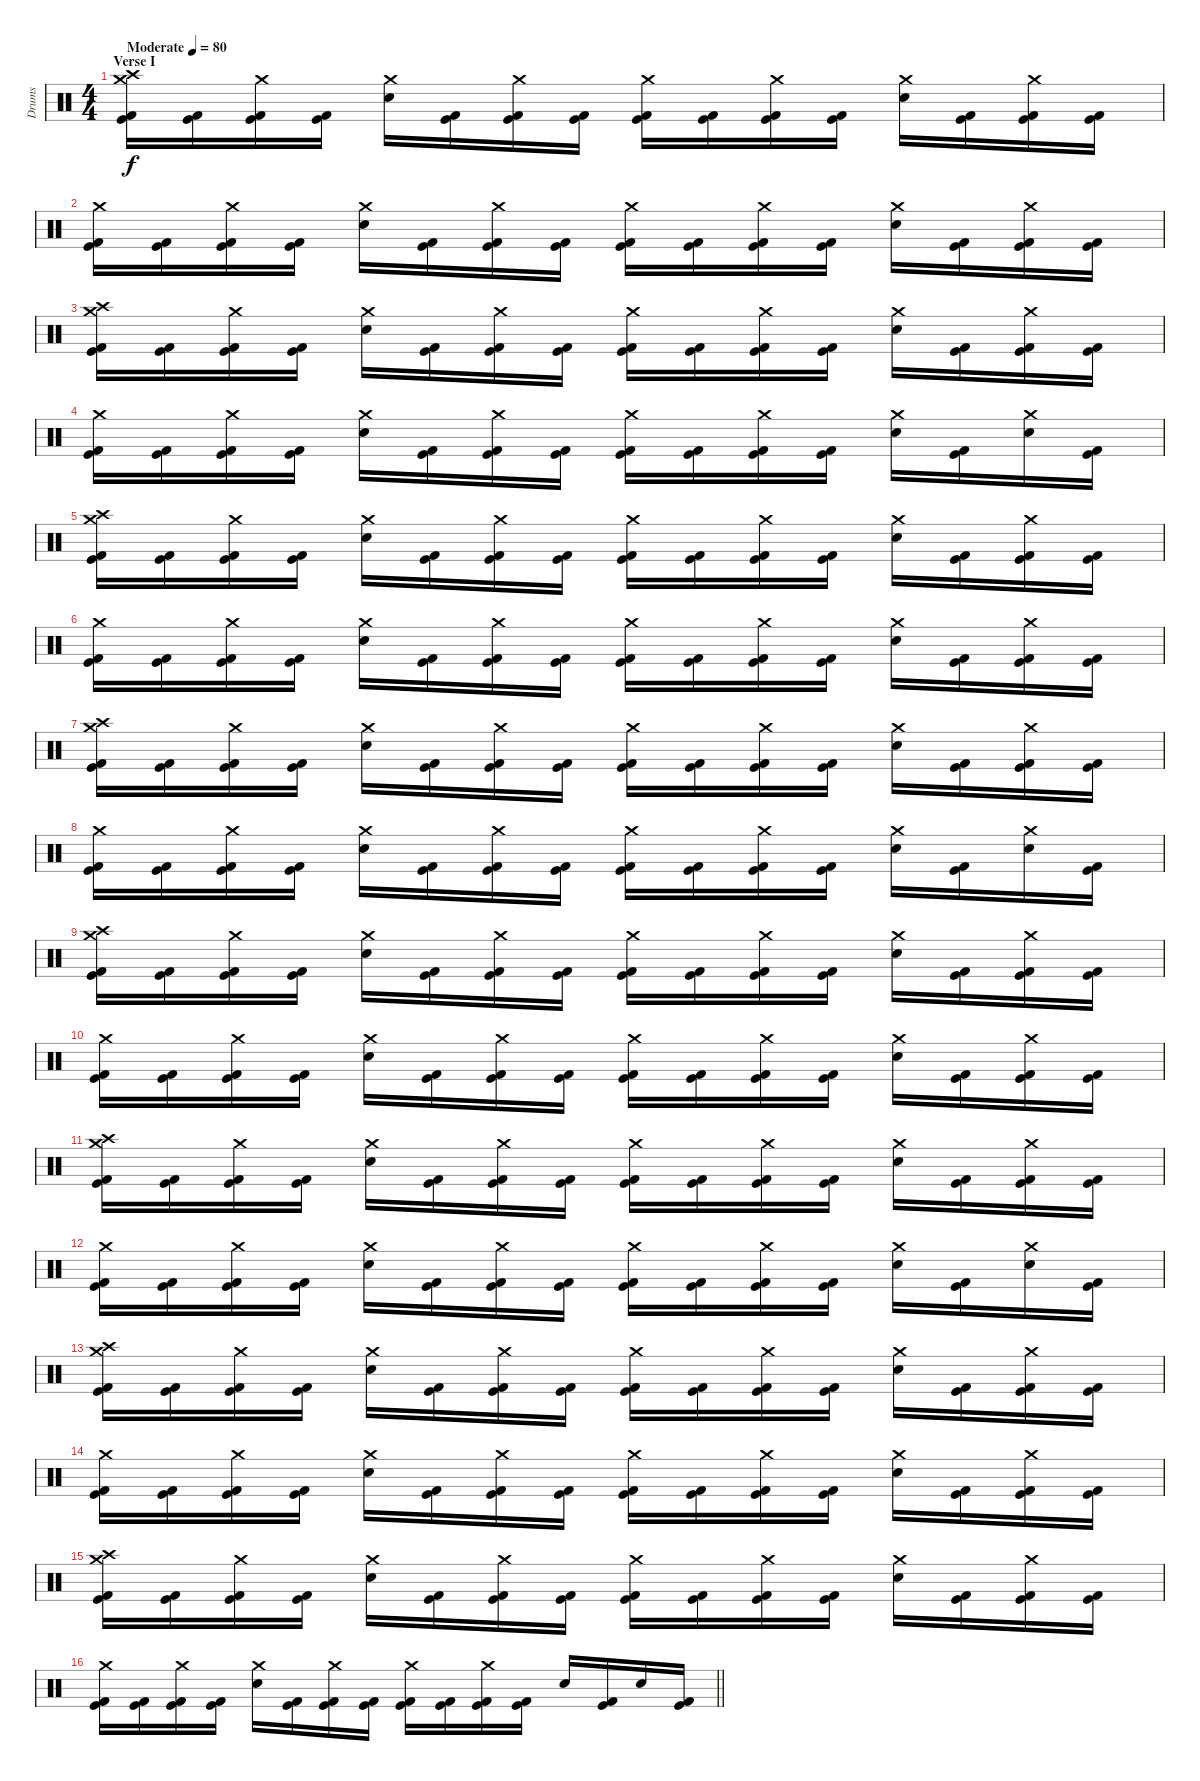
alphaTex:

\track ("Drums" "Drums") {instrument percussion}
\staff {score}
\articulation defaults
\ts (4 4)
\section ("" "Verse I")
\tempo (80 "Moderate")
\clef neutral
\ks c
("Crash medium (hit)" "Crash high (hit)" "Kick (hit) 2" "Kick (hit)").16{dy f} ("Kick (hit) 2" "Kick (hit)").16 ("Crash medium (hit)" "Kick (hit) 2" "Kick (hit)").16 ("Kick (hit) 2" "Kick (hit)").16 ("Crash medium (hit)" "Electric Snare (hit)").16 ("Kick (hit) 2" "Kick (hit)").16 ("Crash medium (hit)" "Kick (hit) 2" "Kick (hit)").16 ("Kick (hit) 2" "Kick (hit)").16 ("Crash medium (hit)" "Kick (hit) 2" "Kick (hit)").16 ("Kick (hit) 2" "Kick (hit)").16 ("Crash medium (hit)" "Kick (hit) 2" "Kick (hit)").16 ("Kick (hit) 2" "Kick (hit)").16 ("Crash medium (hit)" "Electric Snare (hit)").16 ("Kick (hit) 2" "Kick (hit)").16 ("Crash medium (hit)" "Kick (hit) 2" "Kick (hit)").16 ("Kick (hit) 2" "Kick (hit)").16 |
("Crash medium (hit)" "Kick (hit) 2" "Kick (hit)").16 ("Kick (hit) 2" "Kick (hit)").16 ("Crash medium (hit)" "Kick (hit) 2" "Kick (hit)").16 ("Kick (hit) 2" "Kick (hit)").16 ("Crash medium (hit)" "Electric Snare (hit)").16 ("Kick (hit) 2" "Kick (hit)").16 ("Crash medium (hit)" "Kick (hit) 2" "Kick (hit)").16 ("Kick (hit) 2" "Kick (hit)").16 ("Crash medium (hit)" "Kick (hit) 2" "Kick (hit)").16 ("Kick (hit) 2" "Kick (hit)").16 ("Crash medium (hit)" "Kick (hit) 2" "Kick (hit)").16 ("Kick (hit) 2" "Kick (hit)").16 ("Crash medium (hit)" "Electric Snare (hit)").16 ("Kick (hit) 2" "Kick (hit)").16 ("Crash medium (hit)" "Kick (hit) 2" "Kick (hit)").16 ("Kick (hit) 2" "Kick (hit)").16 |
("Crash medium (hit)" "Crash high (hit)" "Kick (hit) 2" "Kick (hit)").16 ("Kick (hit) 2" "Kick (hit)").16 ("Crash medium (hit)" "Kick (hit) 2" "Kick (hit)").16 ("Kick (hit) 2" "Kick (hit)").16 ("Crash medium (hit)" "Electric Snare (hit)").16 ("Kick (hit) 2" "Kick (hit)").16 ("Crash medium (hit)" "Kick (hit) 2" "Kick (hit)").16 ("Kick (hit) 2" "Kick (hit)").16 ("Crash medium (hit)" "Kick (hit) 2" "Kick (hit)").16 ("Kick (hit) 2" "Kick (hit)").16 ("Crash medium (hit)" "Kick (hit) 2" "Kick (hit)").16 ("Kick (hit) 2" "Kick (hit)").16 ("Crash medium (hit)" "Electric Snare (hit)").16 ("Kick (hit) 2" "Kick (hit)").16 ("Crash medium (hit)" "Kick (hit) 2" "Kick (hit)").16 ("Kick (hit) 2" "Kick (hit)").16 |
("Crash medium (hit)" "Kick (hit) 2" "Kick (hit)").16 ("Kick (hit) 2" "Kick (hit)").16 ("Crash medium (hit)" "Kick (hit) 2" "Kick (hit)").16 ("Kick (hit) 2" "Kick (hit)").16 ("Crash medium (hit)" "Electric Snare (hit)").16 ("Kick (hit) 2" "Kick (hit)").16 ("Crash medium (hit)" "Kick (hit) 2" "Kick (hit)").16 ("Kick (hit) 2" "Kick (hit)").16 ("Crash medium (hit)" "Kick (hit) 2" "Kick (hit)").16 ("Kick (hit) 2" "Kick (hit)").16 ("Crash medium (hit)" "Kick (hit) 2" "Kick (hit)").16 ("Kick (hit) 2" "Kick (hit)").16 ("Crash medium (hit)" "Electric Snare (hit)").16 ("Kick (hit) 2" "Kick (hit)").16 ("Crash medium (hit)" "Electric Snare (hit)").16 ("Kick (hit) 2" "Kick (hit)").16 |
("Crash medium (hit)" "Crash high (hit)" "Kick (hit) 2" "Kick (hit)").16 ("Kick (hit) 2" "Kick (hit)").16 ("Crash medium (hit)" "Kick (hit) 2" "Kick (hit)").16 ("Kick (hit) 2" "Kick (hit)").16 ("Crash medium (hit)" "Electric Snare (hit)").16 ("Kick (hit) 2" "Kick (hit)").16 ("Crash medium (hit)" "Kick (hit) 2" "Kick (hit)").16 ("Kick (hit) 2" "Kick (hit)").16 ("Crash medium (hit)" "Kick (hit) 2" "Kick (hit)").16 ("Kick (hit) 2" "Kick (hit)").16 ("Crash medium (hit)" "Kick (hit) 2" "Kick (hit)").16 ("Kick (hit) 2" "Kick (hit)").16 ("Crash medium (hit)" "Electric Snare (hit)").16 ("Kick (hit) 2" "Kick (hit)").16 ("Crash medium (hit)" "Kick (hit) 2" "Kick (hit)").16 ("Kick (hit) 2" "Kick (hit)").16 |
("Crash medium (hit)" "Kick (hit) 2" "Kick (hit)").16 ("Kick (hit) 2" "Kick (hit)").16 ("Crash medium (hit)" "Kick (hit) 2" "Kick (hit)").16 ("Kick (hit) 2" "Kick (hit)").16 ("Crash medium (hit)" "Electric Snare (hit)").16 ("Kick (hit) 2" "Kick (hit)").16 ("Crash medium (hit)" "Kick (hit) 2" "Kick (hit)").16 ("Kick (hit) 2" "Kick (hit)").16 ("Crash medium (hit)" "Kick (hit) 2" "Kick (hit)").16 ("Kick (hit) 2" "Kick (hit)").16 ("Crash medium (hit)" "Kick (hit) 2" "Kick (hit)").16 ("Kick (hit) 2" "Kick (hit)").16 ("Crash medium (hit)" "Electric Snare (hit)").16 ("Kick (hit) 2" "Kick (hit)").16 ("Crash medium (hit)" "Kick (hit) 2" "Kick (hit)").16 ("Kick (hit) 2" "Kick (hit)").16 |
("Crash medium (hit)" "Crash high (hit)" "Kick (hit) 2" "Kick (hit)").16 ("Kick (hit) 2" "Kick (hit)").16 ("Crash medium (hit)" "Kick (hit) 2" "Kick (hit)").16 ("Kick (hit) 2" "Kick (hit)").16 ("Crash medium (hit)" "Electric Snare (hit)").16 ("Kick (hit) 2" "Kick (hit)").16 ("Crash medium (hit)" "Kick (hit) 2" "Kick (hit)").16 ("Kick (hit) 2" "Kick (hit)").16 ("Crash medium (hit)" "Kick (hit) 2" "Kick (hit)").16 ("Kick (hit) 2" "Kick (hit)").16 ("Crash medium (hit)" "Kick (hit) 2" "Kick (hit)").16 ("Kick (hit) 2" "Kick (hit)").16 ("Crash medium (hit)" "Electric Snare (hit)").16 ("Kick (hit) 2" "Kick (hit)").16 ("Crash medium (hit)" "Kick (hit) 2" "Kick (hit)").16 ("Kick (hit) 2" "Kick (hit)").16 |
("Crash medium (hit)" "Kick (hit) 2" "Kick (hit)").16 ("Kick (hit) 2" "Kick (hit)").16 ("Crash medium (hit)" "Kick (hit) 2" "Kick (hit)").16 ("Kick (hit) 2" "Kick (hit)").16 ("Crash medium (hit)" "Electric Snare (hit)").16 ("Kick (hit) 2" "Kick (hit)").16 ("Crash medium (hit)" "Kick (hit) 2" "Kick (hit)").16 ("Kick (hit) 2" "Kick (hit)").16 ("Crash medium (hit)" "Kick (hit) 2" "Kick (hit)").16 ("Kick (hit) 2" "Kick (hit)").16 ("Crash medium (hit)" "Kick (hit) 2" "Kick (hit)").16 ("Kick (hit) 2" "Kick (hit)").16 ("Crash medium (hit)" "Electric Snare (hit)").16 ("Kick (hit) 2" "Kick (hit)").16 ("Crash medium (hit)" "Electric Snare (hit)").16 ("Kick (hit) 2" "Kick (hit)").16 |
("Crash medium (hit)" "Crash high (hit)" "Kick (hit) 2" "Kick (hit)").16 ("Kick (hit) 2" "Kick (hit)").16 ("Crash medium (hit)" "Kick (hit) 2" "Kick (hit)").16 ("Kick (hit) 2" "Kick (hit)").16 ("Crash medium (hit)" "Electric Snare (hit)").16 ("Kick (hit) 2" "Kick (hit)").16 ("Crash medium (hit)" "Kick (hit) 2" "Kick (hit)").16 ("Kick (hit) 2" "Kick (hit)").16 ("Crash medium (hit)" "Kick (hit) 2" "Kick (hit)").16 ("Kick (hit) 2" "Kick (hit)").16 ("Crash medium (hit)" "Kick (hit) 2" "Kick (hit)").16 ("Kick (hit) 2" "Kick (hit)").16 ("Crash medium (hit)" "Electric Snare (hit)").16 ("Kick (hit) 2" "Kick (hit)").16 ("Crash medium (hit)" "Kick (hit) 2" "Kick (hit)").16 ("Kick (hit) 2" "Kick (hit)").16 |
("Crash medium (hit)" "Kick (hit) 2" "Kick (hit)").16 ("Kick (hit) 2" "Kick (hit)").16 ("Crash medium (hit)" "Kick (hit) 2" "Kick (hit)").16 ("Kick (hit) 2" "Kick (hit)").16 ("Crash medium (hit)" "Electric Snare (hit)").16 ("Kick (hit) 2" "Kick (hit)").16 ("Crash medium (hit)" "Kick (hit) 2" "Kick (hit)").16 ("Kick (hit) 2" "Kick (hit)").16 ("Crash medium (hit)" "Kick (hit) 2" "Kick (hit)").16 ("Kick (hit) 2" "Kick (hit)").16 ("Crash medium (hit)" "Kick (hit) 2" "Kick (hit)").16 ("Kick (hit) 2" "Kick (hit)").16 ("Crash medium (hit)" "Electric Snare (hit)").16 ("Kick (hit) 2" "Kick (hit)").16 ("Crash medium (hit)" "Kick (hit) 2" "Kick (hit)").16 ("Kick (hit) 2" "Kick (hit)").16 |
("Crash medium (hit)" "Crash high (hit)" "Kick (hit) 2" "Kick (hit)").16 ("Kick (hit) 2" "Kick (hit)").16 ("Crash medium (hit)" "Kick (hit) 2" "Kick (hit)").16 ("Kick (hit) 2" "Kick (hit)").16 ("Crash medium (hit)" "Electric Snare (hit)").16 ("Kick (hit) 2" "Kick (hit)").16 ("Crash medium (hit)" "Kick (hit) 2" "Kick (hit)").16 ("Kick (hit) 2" "Kick (hit)").16 ("Crash medium (hit)" "Kick (hit) 2" "Kick (hit)").16 ("Kick (hit) 2" "Kick (hit)").16 ("Crash medium (hit)" "Kick (hit) 2" "Kick (hit)").16 ("Kick (hit) 2" "Kick (hit)").16 ("Crash medium (hit)" "Electric Snare (hit)").16 ("Kick (hit) 2" "Kick (hit)").16 ("Crash medium (hit)" "Kick (hit) 2" "Kick (hit)").16 ("Kick (hit) 2" "Kick (hit)").16 |
("Crash medium (hit)" "Kick (hit) 2" "Kick (hit)").16 ("Kick (hit) 2" "Kick (hit)").16 ("Crash medium (hit)" "Kick (hit) 2" "Kick (hit)").16 ("Kick (hit) 2" "Kick (hit)").16 ("Crash medium (hit)" "Electric Snare (hit)").16 ("Kick (hit) 2" "Kick (hit)").16 ("Crash medium (hit)" "Kick (hit) 2" "Kick (hit)").16 ("Kick (hit) 2" "Kick (hit)").16 ("Crash medium (hit)" "Kick (hit) 2" "Kick (hit)").16 ("Kick (hit) 2" "Kick (hit)").16 ("Crash medium (hit)" "Kick (hit) 2" "Kick (hit)").16 ("Kick (hit) 2" "Kick (hit)").16 ("Crash medium (hit)" "Electric Snare (hit)").16 ("Kick (hit) 2" "Kick (hit)").16 ("Crash medium (hit)" "Electric Snare (hit)").16 ("Kick (hit) 2" "Kick (hit)").16 |
("Crash medium (hit)" "Crash high (hit)" "Kick (hit) 2" "Kick (hit)").16 ("Kick (hit) 2" "Kick (hit)").16 ("Crash medium (hit)" "Kick (hit) 2" "Kick (hit)").16 ("Kick (hit) 2" "Kick (hit)").16 ("Crash medium (hit)" "Electric Snare (hit)").16 ("Kick (hit) 2" "Kick (hit)").16 ("Crash medium (hit)" "Kick (hit) 2" "Kick (hit)").16 ("Kick (hit) 2" "Kick (hit)").16 ("Crash medium (hit)" "Kick (hit) 2" "Kick (hit)").16 ("Kick (hit) 2" "Kick (hit)").16 ("Crash medium (hit)" "Kick (hit) 2" "Kick (hit)").16 ("Kick (hit) 2" "Kick (hit)").16 ("Crash medium (hit)" "Electric Snare (hit)").16 ("Kick (hit) 2" "Kick (hit)").16 ("Crash medium (hit)" "Kick (hit) 2" "Kick (hit)").16 ("Kick (hit) 2" "Kick (hit)").16 |
("Crash medium (hit)" "Kick (hit) 2" "Kick (hit)").16 ("Kick (hit) 2" "Kick (hit)").16 ("Crash medium (hit)" "Kick (hit) 2" "Kick (hit)").16 ("Kick (hit) 2" "Kick (hit)").16 ("Crash medium (hit)" "Electric Snare (hit)").16 ("Kick (hit) 2" "Kick (hit)").16 ("Crash medium (hit)" "Kick (hit) 2" "Kick (hit)").16 ("Kick (hit) 2" "Kick (hit)").16 ("Crash medium (hit)" "Kick (hit) 2" "Kick (hit)").16 ("Kick (hit) 2" "Kick (hit)").16 ("Crash medium (hit)" "Kick (hit) 2" "Kick (hit)").16 ("Kick (hit) 2" "Kick (hit)").16 ("Crash medium (hit)" "Electric Snare (hit)").16 ("Kick (hit) 2" "Kick (hit)").16 ("Crash medium (hit)" "Kick (hit) 2" "Kick (hit)").16 ("Kick (hit) 2" "Kick (hit)").16 |
("Crash medium (hit)" "Crash high (hit)" "Kick (hit) 2" "Kick (hit)").16 ("Kick (hit) 2" "Kick (hit)").16 ("Crash medium (hit)" "Kick (hit) 2" "Kick (hit)").16 ("Kick (hit) 2" "Kick (hit)").16 ("Crash medium (hit)" "Electric Snare (hit)").16 ("Kick (hit) 2" "Kick (hit)").16 ("Crash medium (hit)" "Kick (hit) 2" "Kick (hit)").16 ("Kick (hit) 2" "Kick (hit)").16 ("Crash medium (hit)" "Kick (hit) 2" "Kick (hit)").16 ("Kick (hit) 2" "Kick (hit)").16 ("Crash medium (hit)" "Kick (hit) 2" "Kick (hit)").16 ("Kick (hit) 2" "Kick (hit)").16 ("Crash medium (hit)" "Electric Snare (hit)").16 ("Kick (hit) 2" "Kick (hit)").16 ("Crash medium (hit)" "Kick (hit) 2" "Kick (hit)").16 ("Kick (hit) 2" "Kick (hit)").16 |
\barLineRight lightlight
("Crash medium (hit)" "Kick (hit) 2" "Kick (hit)").16 ("Kick (hit) 2" "Kick (hit)").16 ("Crash medium (hit)" "Kick (hit) 2" "Kick (hit)").16 ("Kick (hit) 2" "Kick (hit)").16 ("Crash medium (hit)" "Electric Snare (hit)").16 ("Kick (hit) 2" "Kick (hit)").16 ("Crash medium (hit)" "Kick (hit) 2" "Kick (hit)").16 ("Kick (hit) 2" "Kick (hit)").16 ("Crash medium (hit)" "Kick (hit) 2" "Kick (hit)").16 ("Kick (hit) 2" "Kick (hit)").16 ("Crash medium (hit)" "Kick (hit) 2" "Kick (hit)").16 ("Kick (hit) 2" "Kick (hit)").16 "Electric Snare (hit)".16 ("Kick (hit) 2" "Kick (hit)").16 "Electric Snare (hit)".16 ("Kick (hit) 2" "Kick (hit)").16
